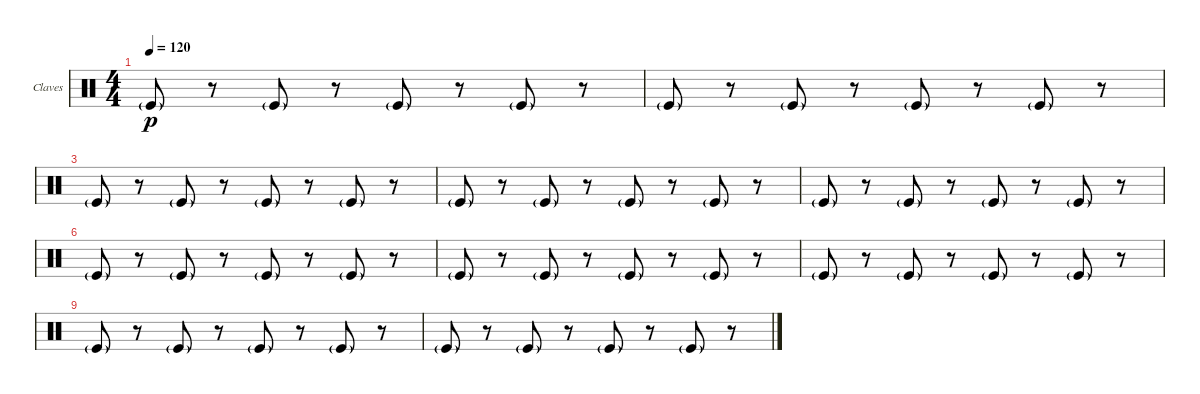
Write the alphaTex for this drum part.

\bracketExtendMode nobrackets
\firstSystemTrackNameOrientation horizontal
\otherSystemsTrackNameOrientation horizontal
\defaultBarNumberDisplay FirstOfSystem
\track ("Claves" "Claves") {instrument percussion}
\staff {score}
\articulation defaults
\ts (4 4)
\tempo 120
\clef neutral
\ks c "Kick (hit)"{g}.8{dy p}
r.8 "Kick (hit)"{g}.8 r.8 "Kick (hit)"{g}.8 r.8 "Kick (hit)"{g}.8 r.8 |
"Kick (hit)"{g}.8 r.8 "Kick (hit)"{g}.8 r.8 "Kick (hit)"{g}.8 r.8 "Kick (hit)"{g}.8 r.8 |
"Kick (hit)"{g}.8 r.8 "Kick (hit)"{g}.8 r.8 "Kick (hit)"{g}.8 r.8 "Kick (hit)"{g}.8 r.8 |
"Kick (hit)"{g}.8 r.8 "Kick (hit)"{g}.8 r.8 "Kick (hit)"{g}.8 r.8 "Kick (hit)"{g}.8 r.8 |
"Kick (hit)"{g}.8 r.8 "Kick (hit)"{g}.8 r.8 "Kick (hit)"{g}.8 r.8 "Kick (hit)"{g}.8 r.8 |
"Kick (hit)"{g}.8 r.8 "Kick (hit)"{g}.8 r.8 "Kick (hit)"{g}.8 r.8 "Kick (hit)"{g}.8 r.8 |
"Kick (hit)"{g}.8 r.8 "Kick (hit)"{g}.8 r.8 "Kick (hit)"{g}.8 r.8 "Kick (hit)"{g}.8 r.8 |
"Kick (hit)"{g}.8 r.8 "Kick (hit)"{g}.8 r.8 "Kick (hit)"{g}.8 r.8 "Kick (hit)"{g}.8 r.8 |
"Kick (hit)"{g}.8 r.8 "Kick (hit)"{g}.8 r.8 "Kick (hit)"{g}.8 r.8 "Kick (hit)"{g}.8 r.8 |
"Kick (hit)"{g}.8 r.8 "Kick (hit)"{g}.8 r.8 "Kick (hit)"{g}.8 r.8 "Kick (hit)"{g}.8 r.8
